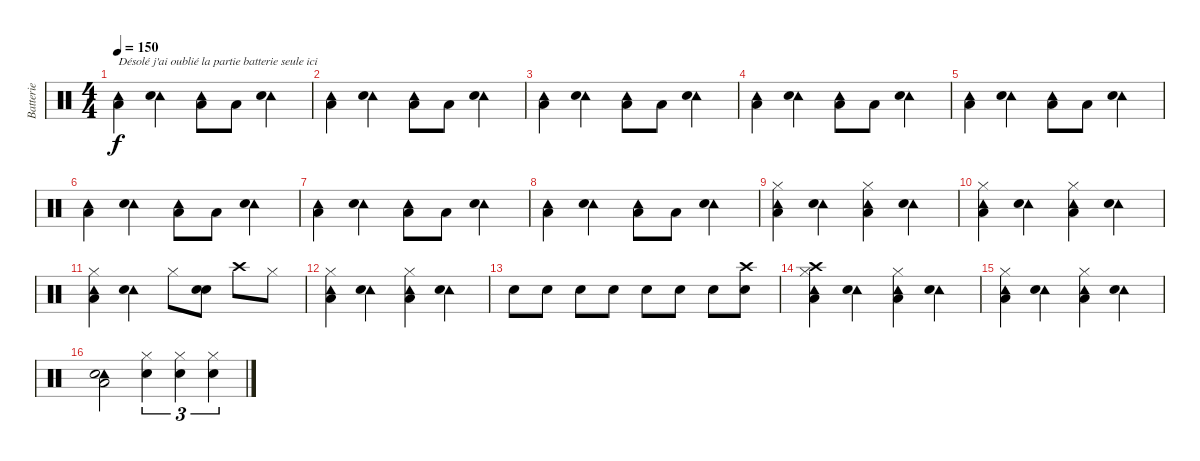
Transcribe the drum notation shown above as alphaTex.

\track ("Batterie" "Batterie") {instrument percussion}
\staff {score}
\articulation defaults
\ts (4 4)
\tempo 150
\clef neutral
\ks c
("Tambourine (hit)" "Low Floor Tom (hit)").4{txt "Désolé j'ai oublié la partie batterie seule ici" dy f} ("Tambourine (hit)" "Electric Snare (hit)").4 ("Tambourine (hit)" "Low Floor Tom (hit)").8 "Low Floor Tom (hit)".8 ("Tambourine (hit)" "Electric Snare (hit)").4 |
("Tambourine (hit)" "Low Floor Tom (hit)").4 ("Tambourine (hit)" "Electric Snare (hit)").4 ("Tambourine (hit)" "Low Floor Tom (hit)").8 "Low Floor Tom (hit)".8 ("Tambourine (hit)" "Electric Snare (hit)").4 |
("Tambourine (hit)" "Low Floor Tom (hit)").4 ("Tambourine (hit)" "Electric Snare (hit)").4 ("Tambourine (hit)" "Low Floor Tom (hit)").8 "Low Floor Tom (hit)".8 ("Tambourine (hit)" "Electric Snare (hit)").4 |
("Tambourine (hit)" "Low Floor Tom (hit)").4 ("Tambourine (hit)" "Electric Snare (hit)").4 ("Tambourine (hit)" "Low Floor Tom (hit)").8 "Low Floor Tom (hit)".8 ("Tambourine (hit)" "Electric Snare (hit)").4 |
("Tambourine (hit)" "Low Floor Tom (hit)").4 ("Tambourine (hit)" "Electric Snare (hit)").4 ("Tambourine (hit)" "Low Floor Tom (hit)").8 "Low Floor Tom (hit)".8 ("Tambourine (hit)" "Electric Snare (hit)").4 |
("Tambourine (hit)" "Low Floor Tom (hit)").4 ("Tambourine (hit)" "Electric Snare (hit)").4 ("Tambourine (hit)" "Low Floor Tom (hit)").8 "Low Floor Tom (hit)".8 ("Tambourine (hit)" "Electric Snare (hit)").4 |
("Tambourine (hit)" "Low Floor Tom (hit)").4 ("Tambourine (hit)" "Electric Snare (hit)").4 ("Tambourine (hit)" "Low Floor Tom (hit)").8 "Low Floor Tom (hit)".8 ("Tambourine (hit)" "Electric Snare (hit)").4 |
("Tambourine (hit)" "Low Floor Tom (hit)").4 ("Tambourine (hit)" "Electric Snare (hit)").4 ("Tambourine (hit)" "Low Floor Tom (hit)").8 "Low Floor Tom (hit)".8 ("Tambourine (hit)" "Electric Snare (hit)").4 |
("Tambourine (hit)" "Hi-Hat (closed)" "Low Floor Tom (hit)").4 ("Tambourine (hit)" "Electric Snare (hit)").4 ("Tambourine (hit)" "Hi-Hat (closed)" "Low Floor Tom (hit)").4 ("Tambourine (hit)" "Electric Snare (hit)").4 |
("Tambourine (hit)" "Hi-Hat (closed)" "Low Floor Tom (hit)").4 ("Tambourine (hit)" "Electric Snare (hit)").4 ("Tambourine (hit)" "Hi-Hat (closed)" "Low Floor Tom (hit)").4 ("Tambourine (hit)" "Electric Snare (hit)").4 |
("Tambourine (hit)" "Hi-Hat (closed)" "Low Floor Tom (hit)").4 ("Tambourine (hit)" "Electric Snare (hit)").4 "Hi-Hat (closed)".8 ("Snare (hit) 2" "Electric Snare (hit)").8 "Crash high (hit)".8 "Hi-Hat (closed)".8 |
("Tambourine (hit)" "Hi-Hat (closed)" "Low Floor Tom (hit)").4 ("Tambourine (hit)" "Electric Snare (hit)").4 ("Tambourine (hit)" "Hi-Hat (closed)" "Low Floor Tom (hit)").4 ("Tambourine (hit)" "Electric Snare (hit)").4 |
"Snare (hit) 2".8 "Snare (hit) 2".8 "Snare (hit) 2".8 "Snare (hit) 2".8 "Snare (hit) 2".8 "Snare (hit) 2".8 "Snare (hit) 2".8 ("Crash high (hit)" "Snare (hit) 2").8 |
("Tambourine (hit)" "Hi-Hat (closed)" "Crash high (hit)" "Low Floor Tom (hit)").4 ("Tambourine (hit)" "Electric Snare (hit)").4 ("Tambourine (hit)" "Hi-Hat (closed)" "Low Floor Tom (hit)").4 ("Tambourine (hit)" "Electric Snare (hit)").4 |
("Tambourine (hit)" "Hi-Hat (closed)" "Low Floor Tom (hit)").4 ("Tambourine (hit)" "Electric Snare (hit)").4 ("Tambourine (hit)" "Hi-Hat (closed)" "Low Floor Tom (hit)").4 ("Tambourine (hit)" "Electric Snare (hit)").4 |
("Tambourine (hit)" "Electric Snare (hit)" "Low Floor Tom (hit)").2 ("Hi-Hat (closed)" "Snare (hit) 2").4{tu (3 2)} ("Hi-Hat (closed)" "Snare (hit) 2").4{tu (3 2)} ("Hi-Hat (closed)" "Snare (hit) 2").4{tu (3 2)}
